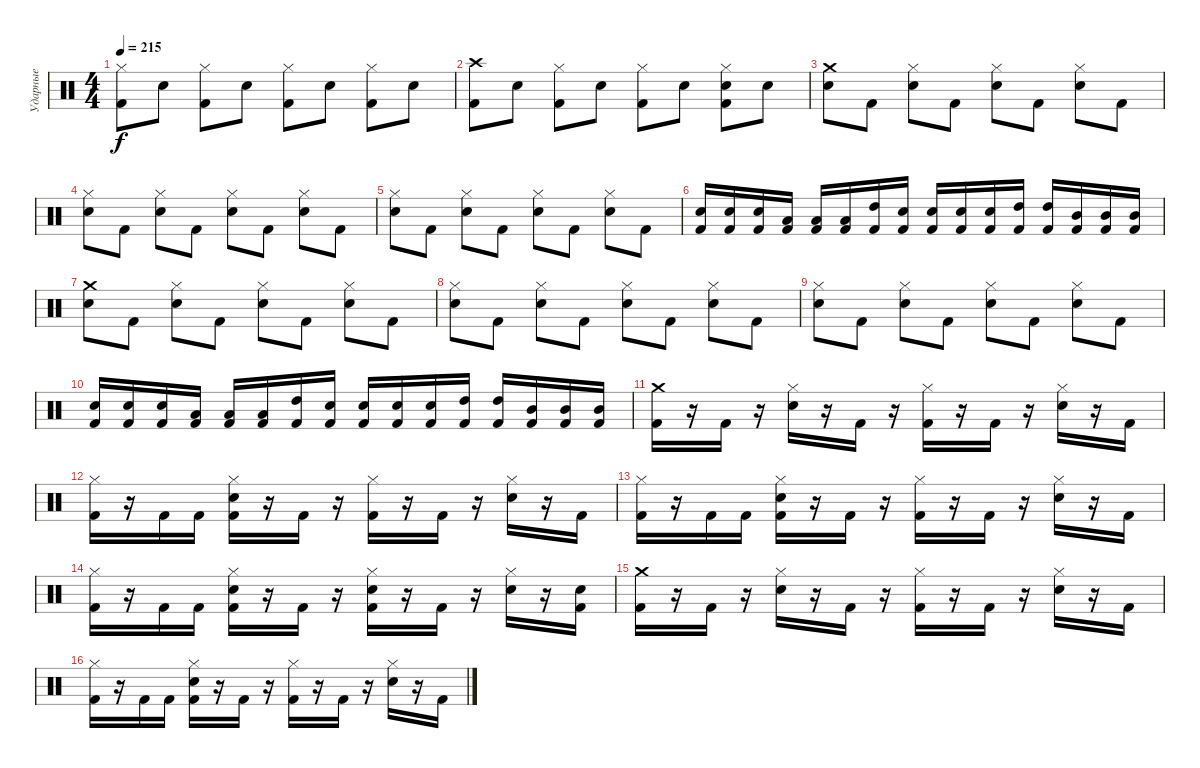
\track ("Ударные" "Ударные") {instrument percussion}
\staff {score}
\articulation defaults
\ts (4 4)
\tempo 215
\clef neutral
\ks c
("Hi-Hat (closed)" "Kick (hit) 2").8{dy f} "Snare (hit) 2".8 ("Hi-Hat (closed)" "Kick (hit) 2").8 "Snare (hit) 2".8 ("Hi-Hat (closed)" "Kick (hit) 2").8 "Snare (hit) 2".8 ("Hi-Hat (closed)" "Kick (hit) 2").8 "Snare (hit) 2".8 |
("Crash high (hit)" "Kick (hit) 2").8 "Snare (hit) 2".8 ("Hi-Hat (closed)" "Kick (hit) 2").8 "Snare (hit) 2".8 ("Hi-Hat (closed)" "Kick (hit) 2").8 "Snare (hit) 2".8 ("Hi-Hat (closed)" "Snare (hit) 2" "Kick (hit) 2").8 "Snare (hit) 2".8 |
("Crash medium (hit)" "Snare (hit) 2").8 "Kick (hit) 2".8 ("Hi-Hat (closed)" "Snare (hit) 2").8 "Kick (hit) 2".8 ("Hi-Hat (closed)" "Snare (hit) 2").8 "Kick (hit) 2".8 ("Hi-Hat (closed)" "Snare (hit) 2").8 "Kick (hit) 2".8 |
("Hi-Hat (closed)" "Snare (hit) 2").8 "Kick (hit) 2".8 ("Hi-Hat (closed)" "Snare (hit) 2").8 "Kick (hit) 2".8 ("Hi-Hat (closed)" "Snare (hit) 2").8 "Kick (hit) 2".8 ("Hi-Hat (closed)" "Snare (hit) 2").8 "Kick (hit) 2".8 |
("Hi-Hat (closed)" "Snare (hit) 2").8 "Kick (hit) 2".8 ("Hi-Hat (closed)" "Snare (hit) 2").8 "Kick (hit) 2".8 ("Hi-Hat (closed)" "Snare (hit) 2").8 "Kick (hit) 2".8 ("Hi-Hat (closed)" "Snare (hit) 2").8 "Kick (hit) 2".8 |
("Snare (hit) 2" "Kick (hit) 2").16 ("Snare (hit) 2" "Kick (hit) 2").16 ("Snare (hit) 2" "Kick (hit) 2").16 ("Low Tom (hit)" "Kick (hit) 2").16 ("Low Tom (hit)" "Kick (hit) 2").16 ("Low Tom (hit)" "Kick (hit) 2").16 ("High Tom (hit)" "Kick (hit) 2").16 ("Snare (hit) 2" "Kick (hit) 2").16 ("Snare (hit) 2" "Kick (hit) 2").16 ("Snare (hit) 2" "Kick (hit) 2").16 ("Snare (hit) 2" "Kick (hit) 2").16 ("High Tom (hit)" "Kick (hit) 2").16 ("High Tom (hit)" "Kick (hit) 2").16 ("Mid Tom (hit)" "Kick (hit) 2").16 ("Mid Tom (hit)" "Kick (hit) 2").16 ("Mid Tom (hit)" "Kick (hit) 2").16 |
("Crash medium (hit)" "Snare (hit) 2").8 "Kick (hit) 2".8 ("Hi-Hat (closed)" "Snare (hit) 2").8 "Kick (hit) 2".8 ("Hi-Hat (closed)" "Snare (hit) 2").8 "Kick (hit) 2".8 ("Hi-Hat (closed)" "Snare (hit) 2").8 "Kick (hit) 2".8 |
("Hi-Hat (closed)" "Snare (hit) 2").8 "Kick (hit) 2".8 ("Hi-Hat (closed)" "Snare (hit) 2").8 "Kick (hit) 2".8 ("Hi-Hat (closed)" "Snare (hit) 2").8 "Kick (hit) 2".8 ("Hi-Hat (closed)" "Snare (hit) 2").8 "Kick (hit) 2".8 |
("Hi-Hat (closed)" "Snare (hit) 2").8 "Kick (hit) 2".8 ("Hi-Hat (closed)" "Snare (hit) 2").8 "Kick (hit) 2".8 ("Hi-Hat (closed)" "Snare (hit) 2").8 "Kick (hit) 2".8 ("Hi-Hat (closed)" "Snare (hit) 2").8 "Kick (hit) 2".8 |
("Snare (hit) 2" "Kick (hit) 2").16 ("Snare (hit) 2" "Kick (hit) 2").16 ("Snare (hit) 2" "Kick (hit) 2").16 ("Low Tom (hit)" "Kick (hit) 2").16 ("Low Tom (hit)" "Kick (hit) 2").16 ("Low Tom (hit)" "Kick (hit) 2").16 ("High Tom (hit)" "Kick (hit) 2").16 ("Snare (hit) 2" "Kick (hit) 2").16 ("Snare (hit) 2" "Kick (hit) 2").16 ("Snare (hit) 2" "Kick (hit) 2").16 ("Snare (hit) 2" "Kick (hit) 2").16 ("High Tom (hit)" "Kick (hit) 2").16 ("High Tom (hit)" "Kick (hit) 2").16 ("Mid Tom (hit)" "Kick (hit) 2").16 ("Mid Tom (hit)" "Kick (hit) 2").16 ("Mid Tom (hit)" "Kick (hit) 2").16 |
("Crash medium (hit)" "Kick (hit) 2").16 r.16 "Kick (hit) 2".16 r.16 ("Hi-Hat (closed)" "Snare (hit) 2").16 r.16 "Kick (hit) 2".16 r.16 ("Hi-Hat (closed)" "Kick (hit) 2").16 r.16 "Kick (hit) 2".16 r.16 ("Hi-Hat (closed)" "Snare (hit) 2").16 r.16 "Kick (hit) 2".16 |
("Hi-Hat (closed)" "Kick (hit) 2").16 r.16 "Kick (hit) 2".16 "Kick (hit) 2".16 ("Hi-Hat (closed)" "Snare (hit) 2" "Kick (hit) 2").16 r.16 "Kick (hit) 2".16 r.16 ("Hi-Hat (closed)" "Kick (hit) 2").16 r.16 "Kick (hit) 2".16 r.16 ("Hi-Hat (closed)" "Snare (hit) 2").16 r.16 "Kick (hit) 2".16 |
("Hi-Hat (closed)" "Kick (hit) 2").16 r.16 "Kick (hit) 2".16 "Kick (hit) 2".16 ("Hi-Hat (closed)" "Snare (hit) 2" "Kick (hit) 2").16 r.16 "Kick (hit) 2".16 r.16 ("Hi-Hat (closed)" "Kick (hit) 2").16 r.16 "Kick (hit) 2".16 r.16 ("Hi-Hat (closed)" "Snare (hit) 2").16 r.16 "Kick (hit) 2".16 |
("Hi-Hat (closed)" "Kick (hit) 2").16 r.16 "Kick (hit) 2".16 "Kick (hit) 2".16 ("Hi-Hat (closed)" "Snare (hit) 2" "Kick (hit) 2").16 r.16 "Kick (hit) 2".16 r.16 ("Hi-Hat (closed)" "Snare (hit) 2" "Kick (hit) 2").16 r.16 "Kick (hit) 2".16 r.16 ("Hi-Hat (closed)" "Snare (hit) 2").16 r.16 ("Snare (hit) 2" "Kick (hit) 2").16 |
("Crash medium (hit)" "Kick (hit) 2").16 r.16 "Kick (hit) 2".16 r.16 ("Hi-Hat (closed)" "Snare (hit) 2").16 r.16 "Kick (hit) 2".16 r.16 ("Hi-Hat (closed)" "Kick (hit) 2").16 r.16 "Kick (hit) 2".16 r.16 ("Hi-Hat (closed)" "Snare (hit) 2").16 r.16 "Kick (hit) 2".16 |
("Hi-Hat (closed)" "Kick (hit) 2").16 r.16 "Kick (hit) 2".16 "Kick (hit) 2".16 ("Hi-Hat (closed)" "Snare (hit) 2" "Kick (hit) 2").16 r.16 "Kick (hit) 2".16 r.16 ("Hi-Hat (closed)" "Kick (hit) 2").16 r.16 "Kick (hit) 2".16 r.16 ("Hi-Hat (closed)" "Snare (hit) 2").16 r.16 "Kick (hit) 2".16
